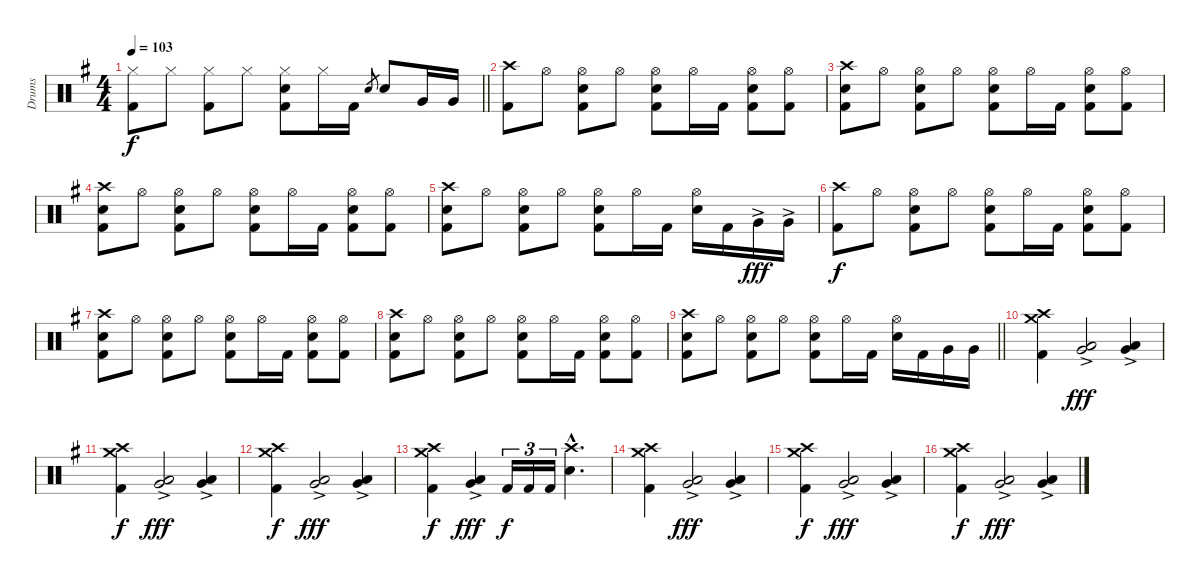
\track ("Drums" "Drums") {instrument percussion}
\staff {score}
\articulation defaults
\ts (4 4)
\tempo 103
\clef neutral
\barLineRight lightlight
\ks eminor
("Hi-Hat (closed)" "Kick (hit) 2").8{dy f} "Hi-Hat (closed)".8 ("Hi-Hat (closed)" "Kick (hit) 2").8 "Hi-Hat (closed)".8 ("Hi-Hat (closed)" "Snare (hit) 2" "Kick (hit) 2").8 "Hi-Hat (closed)".16 "Kick (hit) 2".16 "Snare (hit) 2".8{gr} "Snare (hit) 2".8 "Very Low Tom (hit)".16 "Very Low Tom (hit)".16 |
("Crash high (hit)" "Kick (hit) 2").8 "Hi-Hat (open)".8 ("Hi-Hat (open)" "Snare (hit) 2" "Kick (hit) 2").8 "Hi-Hat (open)".8 ("Hi-Hat (open)" "Snare (hit) 2" "Kick (hit) 2").8 "Hi-Hat (open)".16 "Kick (hit) 2".16 ("Hi-Hat (open)" "Snare (hit) 2" "Kick (hit) 2").8 ("Hi-Hat (open)" "Kick (hit) 2").8 |
("Crash high (hit)" "Snare (hit) 2" "Kick (hit) 2").8 "Hi-Hat (open)".8 ("Hi-Hat (open)" "Snare (hit) 2" "Kick (hit) 2").8 "Hi-Hat (open)".8 ("Hi-Hat (open)" "Snare (hit) 2" "Kick (hit) 2").8 "Hi-Hat (open)".16 "Kick (hit) 2".16 ("Hi-Hat (open)" "Snare (hit) 2" "Kick (hit) 2").8 ("Hi-Hat (open)" "Kick (hit) 2").8 |
("Crash high (hit)" "Snare (hit) 2" "Kick (hit) 2").8 "Hi-Hat (open)".8 ("Hi-Hat (open)" "Snare (hit) 2" "Kick (hit) 2").8 "Hi-Hat (open)".8 ("Hi-Hat (open)" "Snare (hit) 2" "Kick (hit) 2").8 "Hi-Hat (open)".16 "Kick (hit) 2".16 ("Hi-Hat (open)" "Snare (hit) 2" "Kick (hit) 2").8 ("Hi-Hat (open)" "Kick (hit) 2").8 |
("Crash high (hit)" "Snare (hit) 2" "Kick (hit) 2").8 "Hi-Hat (open)".8 ("Hi-Hat (open)" "Snare (hit) 2" "Kick (hit) 2").8 "Hi-Hat (open)".8 ("Hi-Hat (open)" "Snare (hit) 2" "Kick (hit) 2").8 "Hi-Hat (open)".16 "Kick (hit) 2".16 ("Hi-Hat (open)" "Snare (hit) 2").16 "Kick (hit) 2".16 "Very Low Tom (hit)"{ac}.16{dy fff} "Very Low Tom (hit)"{ac}.16 |
("Crash high (hit)" "Kick (hit) 2").8{dy f} "Hi-Hat (open)".8 ("Hi-Hat (open)" "Snare (hit) 2" "Kick (hit) 2").8 "Hi-Hat (open)".8 ("Hi-Hat (open)" "Snare (hit) 2" "Kick (hit) 2").8 "Hi-Hat (open)".16 "Kick (hit) 2".16 ("Hi-Hat (open)" "Snare (hit) 2" "Kick (hit) 2").8 ("Hi-Hat (open)" "Kick (hit) 2").8 |
("Crash high (hit)" "Snare (hit) 2" "Kick (hit) 2").8 "Hi-Hat (open)".8 ("Hi-Hat (open)" "Snare (hit) 2" "Kick (hit) 2").8 "Hi-Hat (open)".8 ("Hi-Hat (open)" "Snare (hit) 2" "Kick (hit) 2").8 "Hi-Hat (open)".16 "Kick (hit) 2".16 ("Hi-Hat (open)" "Snare (hit) 2" "Kick (hit) 2").8 ("Hi-Hat (open)" "Kick (hit) 2").8 |
("Crash high (hit)" "Snare (hit) 2" "Kick (hit) 2").8 "Hi-Hat (open)".8 ("Hi-Hat (open)" "Snare (hit) 2" "Kick (hit) 2").8 "Hi-Hat (open)".8 ("Hi-Hat (open)" "Snare (hit) 2" "Kick (hit) 2").8 "Hi-Hat (open)".16 "Kick (hit) 2".16 ("Hi-Hat (open)" "Snare (hit) 2" "Kick (hit) 2").8 ("Hi-Hat (open)" "Kick (hit) 2").8 |
\barLineRight lightlight
("Crash high (hit)" "Snare (hit) 2" "Kick (hit) 2").8 "Hi-Hat (open)".8 ("Hi-Hat (open)" "Snare (hit) 2" "Kick (hit) 2").8 "Hi-Hat (open)".8 ("Hi-Hat (open)" "Snare (hit) 2" "Kick (hit) 2").8 "Hi-Hat (open)".16 "Kick (hit) 2".16 ("Hi-Hat (open)" "Snare (hit) 2").16 "Kick (hit) 2".16 "Very Low Tom (hit)".16 "Very Low Tom (hit)".16 |
("Crash high (hit)" "Crash medium (hit)" "Kick (hit) 2").4 ("Very Low Tom (hit)"{ac} "Low Floor Tom (hit)"{ac}).2{dy fff} ("Very Low Tom (hit)"{ac} "Low Floor Tom (hit)"{ac}).4 |
("Crash high (hit)" "Crash medium (hit)" "Kick (hit) 2").4{dy f} ("Very Low Tom (hit)"{ac} "Low Floor Tom (hit)"{ac}).2{dy fff} ("Very Low Tom (hit)"{ac} "Low Floor Tom (hit)"{ac}).4 |
("Crash high (hit)" "Crash medium (hit)" "Kick (hit) 2").4{dy f} ("Very Low Tom (hit)"{ac} "Low Floor Tom (hit)"{ac}).2{dy fff} ("Very Low Tom (hit)"{ac} "Low Floor Tom (hit)"{ac}).4 |
("Crash high (hit)" "Crash medium (hit)" "Kick (hit) 2").4{dy f} ("Very Low Tom (hit)"{ac} "Low Floor Tom (hit)"{ac}).4{dy fff} "Kick (hit) 2".16{tu (3 2) dy f} "Kick (hit) 2".16{tu (3 2)} "Kick (hit) 2".16{tu (3 2)} ("Crash high (hit)"{hac} "Snare (hit) 2"{hac}).4{d} |
("Crash high (hit)" "Crash medium (hit)" "Kick (hit) 2").4 ("Very Low Tom (hit)"{ac} "Low Floor Tom (hit)"{ac}).2{dy fff} ("Very Low Tom (hit)"{ac} "Low Floor Tom (hit)"{ac}).4 |
("Crash high (hit)" "Crash medium (hit)" "Kick (hit) 2").4{dy f} ("Very Low Tom (hit)"{ac} "Low Floor Tom (hit)"{ac}).2{dy fff} ("Very Low Tom (hit)"{ac} "Low Floor Tom (hit)"{ac}).4 |
("Crash high (hit)" "Crash medium (hit)" "Kick (hit) 2").4{dy f} ("Very Low Tom (hit)"{ac} "Low Floor Tom (hit)"{ac}).2{dy fff} ("Very Low Tom (hit)"{ac} "Low Floor Tom (hit)"{ac}).4
